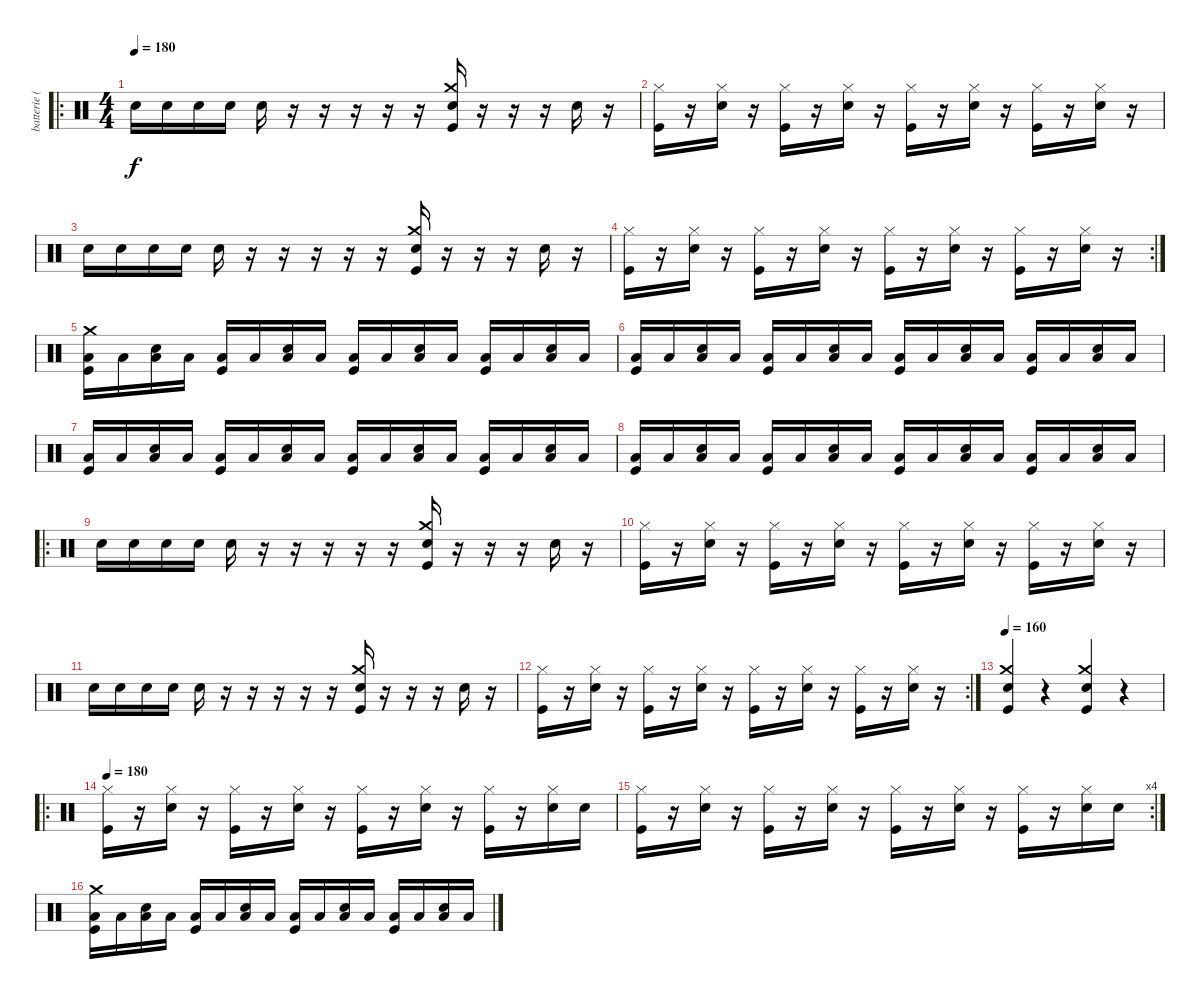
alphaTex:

\track ("batterie ( Jeff Nelson ) " "batterie (") {instrument percussion}
\staff {score}
\articulation defaults
\ro
\ts (4 4)
\tempo 180
\clef neutral
\ks c "Snare (hit) 2".16{dy f} "Snare (hit) 2".16 "Snare (hit) 2".16 "Snare (hit) 2".16 "Snare (hit) 2".16
r.16 r.16 r.16 r.16 r.16 ("Crash medium (hit)" "Snare (hit) 2" "Kick (hit)").16 r.16 r.16 r.16 "Snare (hit) 2".16 r.16 |
("Hi-Hat (closed)" "Kick (hit)").16 r.16 ("Hi-Hat (closed)" "Snare (hit) 2").16 r.16 ("Hi-Hat (closed)" "Kick (hit)").16 r.16 ("Hi-Hat (closed)" "Snare (hit) 2").16 r.16 ("Hi-Hat (closed)" "Kick (hit)").16 r.16 ("Hi-Hat (closed)" "Snare (hit) 2").16 r.16 ("Hi-Hat (closed)" "Kick (hit)").16 r.16 ("Hi-Hat (closed)" "Snare (hit) 2").16 r.16 |
"Snare (hit) 2".16 "Snare (hit) 2".16 "Snare (hit) 2".16 "Snare (hit) 2".16 "Snare (hit) 2".16 r.16 r.16 r.16 r.16 r.16 ("Crash medium (hit)" "Snare (hit) 2" "Kick (hit)").16 r.16 r.16 r.16 "Snare (hit) 2".16 r.16 |
\rc 2
("Hi-Hat (closed)" "Kick (hit)").16 r.16 ("Hi-Hat (closed)" "Snare (hit) 2").16 r.16 ("Hi-Hat (closed)" "Kick (hit)").16 r.16 ("Hi-Hat (closed)" "Snare (hit) 2").16 r.16 ("Hi-Hat (closed)" "Kick (hit)").16 r.16 ("Hi-Hat (closed)" "Snare (hit) 2").16 r.16 ("Hi-Hat (closed)" "Kick (hit)").16 r.16 ("Hi-Hat (closed)" "Snare (hit) 2").16 r.16 |
("Crash medium (hit)" "Low Floor Tom (hit)" "Kick (hit)").16 "Low Floor Tom (hit)".16 ("Low Floor Tom (hit)" "Snare (hit) 2").16 "Low Floor Tom (hit)".16 ("Low Floor Tom (hit)" "Kick (hit)").16 "Low Floor Tom (hit)".16 ("Low Floor Tom (hit)" "Snare (hit) 2").16 "Low Floor Tom (hit)".16 ("Low Floor Tom (hit)" "Kick (hit)").16 "Low Floor Tom (hit)".16 ("Low Floor Tom (hit)" "Snare (hit) 2").16 "Low Floor Tom (hit)".16 ("Low Floor Tom (hit)" "Kick (hit)").16 "Low Floor Tom (hit)".16 ("Low Floor Tom (hit)" "Snare (hit) 2").16 "Low Floor Tom (hit)".16 |
("Low Floor Tom (hit)" "Kick (hit)").16 "Low Floor Tom (hit)".16 ("Low Floor Tom (hit)" "Snare (hit) 2").16 "Low Floor Tom (hit)".16 ("Low Floor Tom (hit)" "Kick (hit)").16 "Low Floor Tom (hit)".16 ("Low Floor Tom (hit)" "Snare (hit) 2").16 "Low Floor Tom (hit)".16 ("Low Floor Tom (hit)" "Kick (hit)").16 "Low Floor Tom (hit)".16 ("Low Floor Tom (hit)" "Snare (hit) 2").16 "Low Floor Tom (hit)".16 ("Low Floor Tom (hit)" "Kick (hit)").16 "Low Floor Tom (hit)".16 ("Low Floor Tom (hit)" "Snare (hit) 2").16 "Low Floor Tom (hit)".16 |
("Low Floor Tom (hit)" "Kick (hit)").16 "Low Floor Tom (hit)".16 ("Low Floor Tom (hit)" "Snare (hit) 2").16 "Low Floor Tom (hit)".16 ("Low Floor Tom (hit)" "Kick (hit)").16 "Low Floor Tom (hit)".16 ("Low Floor Tom (hit)" "Snare (hit) 2").16 "Low Floor Tom (hit)".16 ("Low Floor Tom (hit)" "Kick (hit)").16 "Low Floor Tom (hit)".16 ("Low Floor Tom (hit)" "Snare (hit) 2").16 "Low Floor Tom (hit)".16 ("Low Floor Tom (hit)" "Kick (hit)").16 "Low Floor Tom (hit)".16 ("Low Floor Tom (hit)" "Snare (hit) 2").16 "Low Floor Tom (hit)".16 |
("Low Floor Tom (hit)" "Kick (hit)").16 "Low Floor Tom (hit)".16 ("Low Floor Tom (hit)" "Snare (hit) 2").16 "Low Floor Tom (hit)".16 ("Low Floor Tom (hit)" "Kick (hit)").16 "Low Floor Tom (hit)".16 ("Low Floor Tom (hit)" "Snare (hit) 2").16 "Low Floor Tom (hit)".16 ("Low Floor Tom (hit)" "Kick (hit)").16 "Low Floor Tom (hit)".16 ("Low Floor Tom (hit)" "Snare (hit) 2").16 "Low Floor Tom (hit)".16 ("Low Floor Tom (hit)" "Kick (hit)").16 "Low Floor Tom (hit)".16 ("Low Floor Tom (hit)" "Snare (hit) 2").16 "Low Floor Tom (hit)".16 |
\ro "Snare (hit) 2".16 "Snare (hit) 2".16 "Snare (hit) 2".16 "Snare (hit) 2".16 "Snare (hit) 2".16
r.16 r.16 r.16 r.16 r.16 ("Crash medium (hit)" "Snare (hit) 2" "Kick (hit)").16 r.16 r.16 r.16 "Snare (hit) 2".16 r.16 |
("Hi-Hat (closed)" "Kick (hit)").16 r.16 ("Hi-Hat (closed)" "Snare (hit) 2").16 r.16 ("Hi-Hat (closed)" "Kick (hit)").16 r.16 ("Hi-Hat (closed)" "Snare (hit) 2").16 r.16 ("Hi-Hat (closed)" "Kick (hit)").16 r.16 ("Hi-Hat (closed)" "Snare (hit) 2").16 r.16 ("Hi-Hat (closed)" "Kick (hit)").16 r.16 ("Hi-Hat (closed)" "Snare (hit) 2").16 r.16 |
"Snare (hit) 2".16 "Snare (hit) 2".16 "Snare (hit) 2".16 "Snare (hit) 2".16 "Snare (hit) 2".16 r.16 r.16 r.16 r.16 r.16 ("Crash medium (hit)" "Snare (hit) 2" "Kick (hit)").16 r.16 r.16 r.16 "Snare (hit) 2".16 r.16 |
\rc 2
("Hi-Hat (closed)" "Kick (hit)").16 r.16 ("Hi-Hat (closed)" "Snare (hit) 2").16 r.16 ("Hi-Hat (closed)" "Kick (hit)").16 r.16 ("Hi-Hat (closed)" "Snare (hit) 2").16 r.16 ("Hi-Hat (closed)" "Kick (hit)").16 r.16 ("Hi-Hat (closed)" "Snare (hit) 2").16 r.16 ("Hi-Hat (closed)" "Kick (hit)").16 r.16 ("Hi-Hat (closed)" "Snare (hit) 2").16 r.16 |
\tempo 160
("Crash medium (hit)" "Snare (hit) 2" "Kick (hit)").4 r.4 ("Crash medium (hit)" "Snare (hit) 2" "Kick (hit)").4 r.4 |
\ro
\tempo 180
("Hi-Hat (closed)" "Kick (hit)").16 r.16 ("Hi-Hat (closed)" "Snare (hit) 2").16 r.16 ("Hi-Hat (closed)" "Kick (hit)").16 r.16 ("Hi-Hat (closed)" "Snare (hit) 2").16 r.16 ("Hi-Hat (closed)" "Kick (hit)").16 r.16 ("Hi-Hat (closed)" "Snare (hit) 2").16 r.16 ("Hi-Hat (closed)" "Kick (hit)").16 r.16 ("Hi-Hat (closed)" "Snare (hit) 2").16 "Snare (hit) 2".16 |
\rc 4
("Hi-Hat (closed)" "Kick (hit)").16 r.16 ("Hi-Hat (closed)" "Snare (hit) 2").16 r.16 ("Hi-Hat (closed)" "Kick (hit)").16 r.16 ("Hi-Hat (closed)" "Snare (hit) 2").16 r.16 ("Hi-Hat (closed)" "Kick (hit)").16 r.16 ("Hi-Hat (closed)" "Snare (hit) 2").16 r.16 ("Hi-Hat (closed)" "Kick (hit)").16 r.16 ("Hi-Hat (closed)" "Snare (hit) 2").16 "Snare (hit) 2".16 |
("Crash medium (hit)" "Low Floor Tom (hit)" "Kick (hit)").16 "Low Floor Tom (hit)".16 ("Low Floor Tom (hit)" "Snare (hit) 2").16 "Low Floor Tom (hit)".16 ("Low Floor Tom (hit)" "Kick (hit)").16 "Low Floor Tom (hit)".16 ("Low Floor Tom (hit)" "Snare (hit) 2").16 "Low Floor Tom (hit)".16 ("Low Floor Tom (hit)" "Kick (hit)").16 "Low Floor Tom (hit)".16 ("Low Floor Tom (hit)" "Snare (hit) 2").16 "Low Floor Tom (hit)".16 ("Low Floor Tom (hit)" "Kick (hit)").16 "Low Floor Tom (hit)".16 ("Low Floor Tom (hit)" "Snare (hit) 2").16 "Low Floor Tom (hit)".16
